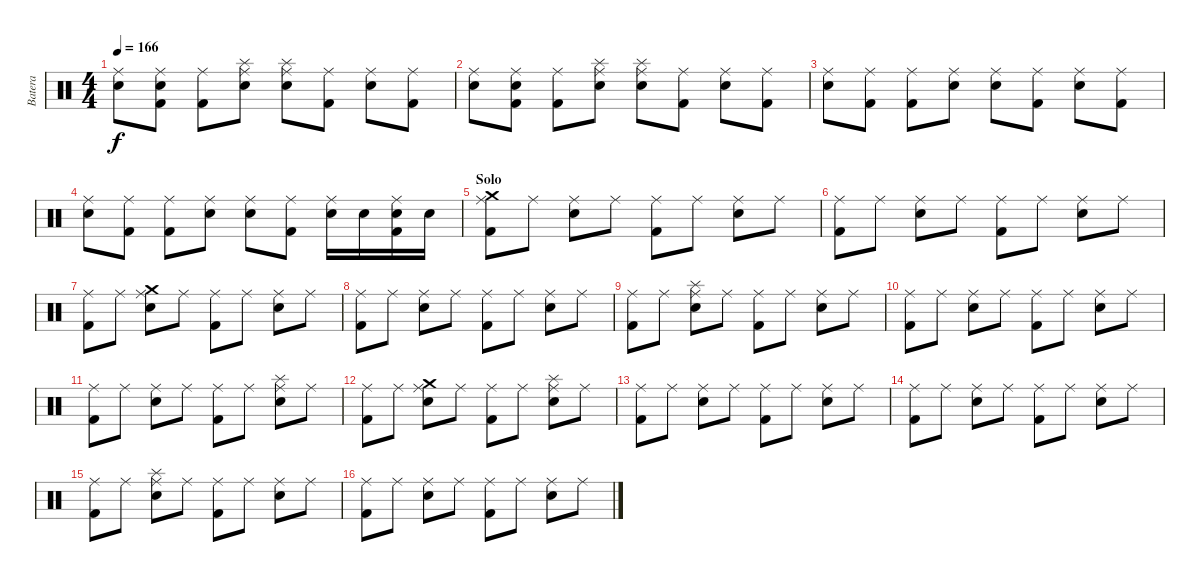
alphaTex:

\track ("Batera" "Batera") {instrument percussion}
\staff {score}
\articulation defaults
\ts (4 4)
\tempo 166
\clef neutral
\ks c
("Ride (middle)" "Snare (hit) 2").8{dy f} ("Ride (middle)" "Kick (hit) 2" "Snare (hit) 2").8 ("Ride (middle)" "Kick (hit) 2").8 ("Ride (middle)" "Splash (hit)" "Snare (hit) 2").8 ("Ride (middle)" "Splash (hit)" "Snare (hit) 2").8 ("Ride (middle)" "Kick (hit) 2").8 ("Ride (middle)" "Snare (hit) 2").8 ("Ride (middle)" "Kick (hit) 2").8 |
("Ride (middle)" "Snare (hit) 2").8 ("Ride (middle)" "Kick (hit) 2" "Snare (hit) 2").8 ("Ride (middle)" "Kick (hit) 2").8 ("Ride (middle)" "Splash (hit)" "Snare (hit) 2").8 ("Ride (middle)" "Splash (hit)" "Snare (hit) 2").8 ("Ride (middle)" "Kick (hit) 2").8 ("Ride (middle)" "Snare (hit) 2").8 ("Ride (middle)" "Kick (hit) 2").8 |
("Ride (middle)" "Snare (hit) 2").8 ("Ride (middle)" "Kick (hit) 2").8 ("Ride (middle)" "Kick (hit) 2").8 ("Ride (middle)" "Snare (hit) 2").8 ("Ride (middle)" "Snare (hit) 2").8 ("Ride (middle)" "Kick (hit) 2").8 ("Ride (middle)" "Snare (hit) 2").8 ("Ride (middle)" "Kick (hit) 2").8 |
("Ride (middle)" "Snare (hit) 2").8 ("Ride (middle)" "Kick (hit) 2").8 ("Ride (middle)" "Kick (hit) 2").8 ("Ride (middle)" "Snare (hit) 2").8 ("Ride (middle)" "Snare (hit) 2").8 ("Ride (middle)" "Kick (hit) 2").8 ("Ride (middle)" "Snare (hit) 2").16 "Snare (hit) 2".16 ("Ride (middle)" "Kick (hit) 2" "Snare (hit) 2").16 "Snare (hit) 2".16 |
\section ("" "Solo")
("Ride (middle)" "Kick (hit) 2" "Crash medium (hit)").8 "Ride (middle)".8 ("Ride (middle)" "Snare (hit) 2").8 "Ride (middle)".8 ("Ride (middle)" "Kick (hit) 2").8 "Ride (middle)".8 ("Ride (middle)" "Snare (hit) 2").8 "Ride (middle)".8 |
("Ride (middle)" "Kick (hit) 2").8 "Ride (middle)".8 ("Ride (middle)" "Snare (hit) 2").8 "Ride (middle)".8 ("Ride (middle)" "Kick (hit) 2").8 "Ride (middle)".8 ("Ride (middle)" "Snare (hit) 2").8 "Ride (middle)".8 |
("Ride (middle)" "Kick (hit) 2").8 "Ride (middle)".8 ("Ride (middle)" "Crash medium (hit)" "Snare (hit) 2").8 "Ride (middle)".8 ("Ride (middle)" "Kick (hit) 2").8 "Ride (middle)".8 ("Ride (middle)" "Snare (hit) 2").8 "Ride (middle)".8 |
("Ride (middle)" "Kick (hit) 2").8 "Ride (middle)".8 ("Ride (middle)" "Snare (hit) 2").8 "Ride (middle)".8 ("Ride (middle)" "Kick (hit) 2").8 "Ride (middle)".8 ("Ride (middle)" "Snare (hit) 2").8 "Ride (middle)".8 |
("Ride (middle)" "Kick (hit) 2").8 "Ride (middle)".8 ("Ride (middle)" "Splash (hit)" "Snare (hit) 2").8 "Ride (middle)".8 ("Ride (middle)" "Kick (hit) 2").8 "Ride (middle)".8 ("Ride (middle)" "Snare (hit) 2").8 "Ride (middle)".8 |
("Ride (middle)" "Kick (hit) 2").8 "Ride (middle)".8 ("Ride (middle)" "Snare (hit) 2").8 "Ride (middle)".8 ("Ride (middle)" "Kick (hit) 2").8 "Ride (middle)".8 ("Ride (middle)" "Snare (hit) 2").8 "Ride (middle)".8 |
("Ride (middle)" "Kick (hit) 2").8 "Ride (middle)".8 ("Ride (middle)" "Snare (hit) 2").8 "Ride (middle)".8 ("Ride (middle)" "Kick (hit) 2").8 "Ride (middle)".8 ("Ride (middle)" "Splash (hit)" "Snare (hit) 2").8 "Ride (middle)".8 |
("Ride (middle)" "Kick (hit) 2").8 "Ride (middle)".8 ("Ride (middle)" "Crash medium (hit)" "Snare (hit) 2").8 "Ride (middle)".8 ("Ride (middle)" "Kick (hit) 2").8 "Ride (middle)".8 ("Ride (middle)" "Splash (hit)" "Snare (hit) 2").8 "Ride (middle)".8 |
("Ride (middle)" "Kick (hit) 2").8 "Ride (middle)".8 ("Ride (middle)" "Snare (hit) 2").8 "Ride (middle)".8 ("Ride (middle)" "Kick (hit) 2").8 "Ride (middle)".8 ("Ride (middle)" "Snare (hit) 2").8 "Ride (middle)".8 |
("Ride (middle)" "Kick (hit) 2").8 "Ride (middle)".8 ("Ride (middle)" "Snare (hit) 2").8 "Ride (middle)".8 ("Ride (middle)" "Kick (hit) 2").8 "Ride (middle)".8 ("Ride (middle)" "Snare (hit) 2").8 "Ride (middle)".8 |
("Ride (middle)" "Kick (hit) 2").8 "Ride (middle)".8 ("Ride (middle)" "Splash (hit)" "Snare (hit) 2").8 "Ride (middle)".8 ("Ride (middle)" "Kick (hit) 2").8 "Ride (middle)".8 ("Ride (middle)" "Snare (hit) 2").8 "Ride (middle)".8 |
("Ride (middle)" "Kick (hit) 2").8 "Ride (middle)".8 ("Ride (middle)" "Snare (hit) 2").8 "Ride (middle)".8 ("Ride (middle)" "Kick (hit) 2").8 "Ride (middle)".8 ("Ride (middle)" "Snare (hit) 2").8 "Ride (middle)".8
